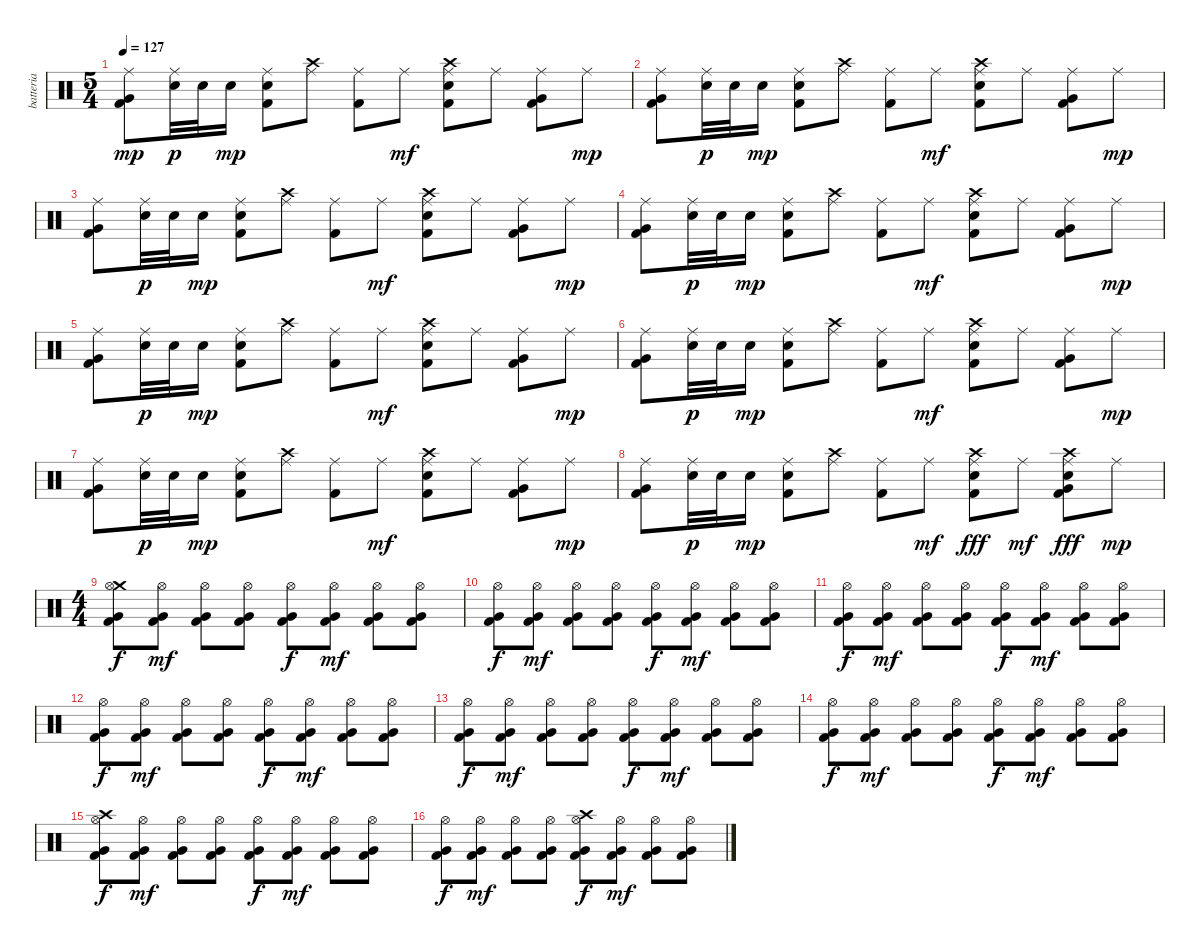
\track ("batteria" "batteria") {instrument percussion}
\staff {score}
\articulation defaults
\ts (5 4)
\tempo 127
\clef neutral
\ks c
("Ride (middle)" "Very Low Tom (hit)" "Kick (hit) 2").8{dy mp} ("Ride (middle)" "Electric Snare (hit)").32{dy p} "Electric Snare (hit)".32 "Electric Snare (hit)".16{dy mp} ("Ride (middle)" "Electric Snare (hit)" "Kick (hit) 2").8 ("Crash high (hit)" "Ride (middle)").8 ("Ride (middle)" "Kick (hit) 2").8 "Ride (middle)".8{dy mf} ("Crash high (hit)" "Ride (middle)" "Electric Snare (hit)" "Kick (hit) 2").8 "Ride (middle)".8 ("Ride (middle)" "Very Low Tom (hit)" "Kick (hit) 2").8 "Ride (middle)".8{dy mp} |
("Ride (middle)" "Very Low Tom (hit)" "Kick (hit) 2").8 ("Ride (middle)" "Electric Snare (hit)").32{dy p} "Electric Snare (hit)".32 "Electric Snare (hit)".16{dy mp} ("Ride (middle)" "Electric Snare (hit)" "Kick (hit) 2").8 ("Crash high (hit)" "Ride (middle)").8 ("Ride (middle)" "Kick (hit) 2").8 "Ride (middle)".8{dy mf} ("Crash high (hit)" "Ride (middle)" "Electric Snare (hit)" "Kick (hit) 2").8 "Ride (middle)".8 ("Ride (middle)" "Very Low Tom (hit)" "Kick (hit) 2").8 "Ride (middle)".8{dy mp} |
("Ride (middle)" "Very Low Tom (hit)" "Kick (hit) 2").8 ("Ride (middle)" "Electric Snare (hit)").32{dy p} "Electric Snare (hit)".32 "Electric Snare (hit)".16{dy mp} ("Ride (middle)" "Electric Snare (hit)" "Kick (hit) 2").8 ("Crash high (hit)" "Ride (middle)").8 ("Ride (middle)" "Kick (hit) 2").8 "Ride (middle)".8{dy mf} ("Crash high (hit)" "Ride (middle)" "Electric Snare (hit)" "Kick (hit) 2").8 "Ride (middle)".8 ("Ride (middle)" "Very Low Tom (hit)" "Kick (hit) 2").8 "Ride (middle)".8{dy mp} |
("Ride (middle)" "Very Low Tom (hit)" "Kick (hit) 2").8 ("Ride (middle)" "Electric Snare (hit)").32{dy p} "Electric Snare (hit)".32 "Electric Snare (hit)".16{dy mp} ("Ride (middle)" "Electric Snare (hit)" "Kick (hit) 2").8 ("Crash high (hit)" "Ride (middle)").8 ("Ride (middle)" "Kick (hit) 2").8 "Ride (middle)".8{dy mf} ("Crash high (hit)" "Ride (middle)" "Electric Snare (hit)" "Kick (hit) 2").8 "Ride (middle)".8 ("Ride (middle)" "Very Low Tom (hit)" "Kick (hit) 2").8 "Ride (middle)".8{dy mp} |
("Ride (middle)" "Very Low Tom (hit)" "Kick (hit) 2").8 ("Ride (middle)" "Electric Snare (hit)").32{dy p} "Electric Snare (hit)".32 "Electric Snare (hit)".16{dy mp} ("Ride (middle)" "Electric Snare (hit)" "Kick (hit) 2").8 ("Crash high (hit)" "Ride (middle)").8 ("Ride (middle)" "Kick (hit) 2").8 "Ride (middle)".8{dy mf} ("Crash high (hit)" "Ride (middle)" "Electric Snare (hit)" "Kick (hit) 2").8 "Ride (middle)".8 ("Ride (middle)" "Very Low Tom (hit)" "Kick (hit) 2").8 "Ride (middle)".8{dy mp} |
("Ride (middle)" "Very Low Tom (hit)" "Kick (hit) 2").8 ("Ride (middle)" "Electric Snare (hit)").32{dy p} "Electric Snare (hit)".32 "Electric Snare (hit)".16{dy mp} ("Ride (middle)" "Electric Snare (hit)" "Kick (hit) 2").8 ("Crash high (hit)" "Ride (middle)").8 ("Ride (middle)" "Kick (hit) 2").8 "Ride (middle)".8{dy mf} ("Crash high (hit)" "Ride (middle)" "Electric Snare (hit)" "Kick (hit) 2").8 "Ride (middle)".8 ("Ride (middle)" "Very Low Tom (hit)" "Kick (hit) 2").8 "Ride (middle)".8{dy mp} |
("Ride (middle)" "Very Low Tom (hit)" "Kick (hit) 2").8 ("Ride (middle)" "Electric Snare (hit)").32{dy p} "Electric Snare (hit)".32 "Electric Snare (hit)".16{dy mp} ("Ride (middle)" "Electric Snare (hit)" "Kick (hit) 2").8 ("Crash high (hit)" "Ride (middle)").8 ("Ride (middle)" "Kick (hit) 2").8 "Ride (middle)".8{dy mf} ("Crash high (hit)" "Ride (middle)" "Electric Snare (hit)" "Kick (hit) 2").8 "Ride (middle)".8 ("Ride (middle)" "Very Low Tom (hit)" "Kick (hit) 2").8 "Ride (middle)".8{dy mp} |
("Ride (middle)" "Very Low Tom (hit)" "Kick (hit) 2").8 ("Ride (middle)" "Electric Snare (hit)").32{dy p} "Electric Snare (hit)".32 "Electric Snare (hit)".16{dy mp} ("Ride (middle)" "Electric Snare (hit)" "Kick (hit) 2").8 ("Crash high (hit)" "Ride (middle)").8 ("Ride (middle)" "Kick (hit) 2").8 "Ride (middle)".8{dy mf} ("Crash high (hit)" "Ride (middle)" "Electric Snare (hit)" "Kick (hit) 2").8{dy fff} "Ride (middle)".8{dy mf} ("Crash high (hit)" "Ride (middle)" "Electric Snare (hit)" "Very Low Tom (hit)" "Kick (hit) 2").8{dy fff} "Ride (middle)".8{dy mp} |
\ts (4 4)
("Crash medium (hit)" "Hi-Hat (open)" "Very Low Tom (hit)" "Kick (hit) 2").8{dy f} ("Hi-Hat (open)" "Very Low Tom (hit)" "Kick (hit) 2").8{dy mf} ("Hi-Hat (open)" "Very Low Tom (hit)" "Kick (hit) 2").8 ("Hi-Hat (open)" "Very Low Tom (hit)" "Kick (hit) 2").8 ("Hi-Hat (open)" "Very Low Tom (hit)" "Kick (hit) 2").8{dy f} ("Hi-Hat (open)" "Very Low Tom (hit)" "Kick (hit) 2").8{dy mf} ("Hi-Hat (open)" "Very Low Tom (hit)" "Kick (hit) 2").8 ("Hi-Hat (open)" "Very Low Tom (hit)" "Kick (hit) 2").8 |
("Hi-Hat (open)" "Very Low Tom (hit)" "Kick (hit) 2").8{dy f} ("Hi-Hat (open)" "Very Low Tom (hit)" "Kick (hit) 2").8{dy mf} ("Hi-Hat (open)" "Very Low Tom (hit)" "Kick (hit) 2").8 ("Hi-Hat (open)" "Very Low Tom (hit)" "Kick (hit) 2").8 ("Hi-Hat (open)" "Very Low Tom (hit)" "Kick (hit) 2").8{dy f} ("Hi-Hat (open)" "Very Low Tom (hit)" "Kick (hit) 2").8{dy mf} ("Hi-Hat (open)" "Very Low Tom (hit)" "Kick (hit) 2").8 ("Hi-Hat (open)" "Very Low Tom (hit)" "Kick (hit) 2").8 |
("Hi-Hat (open)" "Very Low Tom (hit)" "Kick (hit) 2").8{dy f} ("Hi-Hat (open)" "Very Low Tom (hit)" "Kick (hit) 2").8{dy mf} ("Hi-Hat (open)" "Very Low Tom (hit)" "Kick (hit) 2").8 ("Hi-Hat (open)" "Very Low Tom (hit)" "Kick (hit) 2").8 ("Hi-Hat (open)" "Very Low Tom (hit)" "Kick (hit) 2").8{dy f} ("Hi-Hat (open)" "Very Low Tom (hit)" "Kick (hit) 2").8{dy mf} ("Hi-Hat (open)" "Very Low Tom (hit)" "Kick (hit) 2").8 ("Hi-Hat (open)" "Very Low Tom (hit)" "Kick (hit) 2").8 |
("Hi-Hat (open)" "Very Low Tom (hit)" "Kick (hit) 2").8{dy f} ("Hi-Hat (open)" "Very Low Tom (hit)" "Kick (hit) 2").8{dy mf} ("Hi-Hat (open)" "Very Low Tom (hit)" "Kick (hit) 2").8 ("Hi-Hat (open)" "Very Low Tom (hit)" "Kick (hit) 2").8 ("Hi-Hat (open)" "Very Low Tom (hit)" "Kick (hit) 2").8{dy f} ("Hi-Hat (open)" "Very Low Tom (hit)" "Kick (hit) 2").8{dy mf} ("Hi-Hat (open)" "Very Low Tom (hit)" "Kick (hit) 2").8 ("Hi-Hat (open)" "Very Low Tom (hit)" "Kick (hit) 2").8 |
("Hi-Hat (open)" "Very Low Tom (hit)" "Kick (hit) 2").8{dy f} ("Hi-Hat (open)" "Very Low Tom (hit)" "Kick (hit) 2").8{dy mf} ("Hi-Hat (open)" "Very Low Tom (hit)" "Kick (hit) 2").8 ("Hi-Hat (open)" "Very Low Tom (hit)" "Kick (hit) 2").8 ("Hi-Hat (open)" "Very Low Tom (hit)" "Kick (hit) 2").8{dy f} ("Hi-Hat (open)" "Very Low Tom (hit)" "Kick (hit) 2").8{dy mf} ("Hi-Hat (open)" "Very Low Tom (hit)" "Kick (hit) 2").8 ("Hi-Hat (open)" "Very Low Tom (hit)" "Kick (hit) 2").8 |
("Hi-Hat (open)" "Very Low Tom (hit)" "Kick (hit) 2").8{dy f} ("Hi-Hat (open)" "Very Low Tom (hit)" "Kick (hit) 2").8{dy mf} ("Hi-Hat (open)" "Very Low Tom (hit)" "Kick (hit) 2").8 ("Hi-Hat (open)" "Very Low Tom (hit)" "Kick (hit) 2").8 ("Hi-Hat (open)" "Very Low Tom (hit)" "Kick (hit) 2").8{dy f} ("Hi-Hat (open)" "Very Low Tom (hit)" "Kick (hit) 2").8{dy mf} ("Hi-Hat (open)" "Very Low Tom (hit)" "Kick (hit) 2").8 ("Hi-Hat (open)" "Very Low Tom (hit)" "Kick (hit) 2").8 |
("Crash high (hit)" "Hi-Hat (open)" "Very Low Tom (hit)" "Kick (hit) 2").8{dy f} ("Hi-Hat (open)" "Very Low Tom (hit)" "Kick (hit) 2").8{dy mf} ("Hi-Hat (open)" "Very Low Tom (hit)" "Kick (hit) 2").8 ("Hi-Hat (open)" "Very Low Tom (hit)" "Kick (hit) 2").8 ("Hi-Hat (open)" "Very Low Tom (hit)" "Kick (hit) 2").8{dy f} ("Hi-Hat (open)" "Very Low Tom (hit)" "Kick (hit) 2").8{dy mf} ("Hi-Hat (open)" "Very Low Tom (hit)" "Kick (hit) 2").8 ("Hi-Hat (open)" "Very Low Tom (hit)" "Kick (hit) 2").8 |
("Hi-Hat (open)" "Very Low Tom (hit)" "Kick (hit) 2").8{dy f} ("Hi-Hat (open)" "Very Low Tom (hit)" "Kick (hit) 2").8{dy mf} ("Hi-Hat (open)" "Very Low Tom (hit)" "Kick (hit) 2").8 ("Hi-Hat (open)" "Very Low Tom (hit)" "Kick (hit) 2").8 ("Crash high (hit)" "Hi-Hat (open)" "Very Low Tom (hit)" "Kick (hit) 2").8{dy f} ("Hi-Hat (open)" "Very Low Tom (hit)" "Kick (hit) 2").8{dy mf} ("Hi-Hat (open)" "Very Low Tom (hit)" "Kick (hit) 2").8 ("Hi-Hat (open)" "Very Low Tom (hit)" "Kick (hit) 2").8
